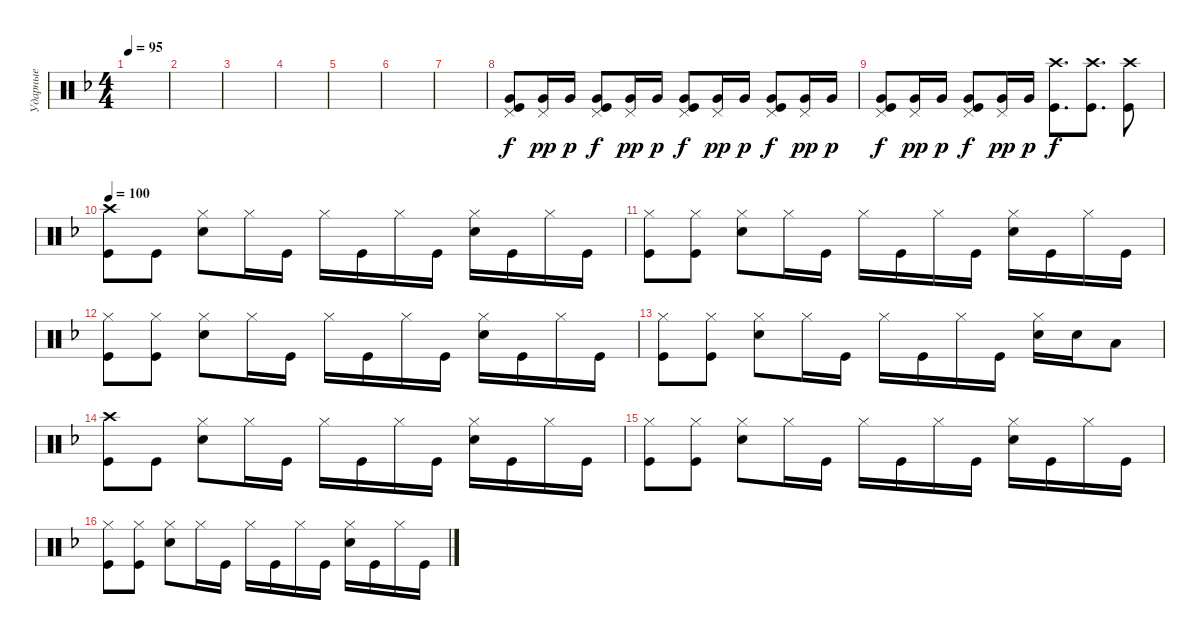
\track ("Ударные" "Ударные") {instrument percussion}
\staff {score}
\articulation defaults
\ts (4 4)
\tempo 95
\clef neutral
\ks dminor
|
|
|
|
|
|
|
("Kick (hit)" "Very Low Tom (hit)" "Pedal Hi-Hat (hit)").8{bd 60} ("Pedal Hi-Hat (hit)" "Very Low Tom (hit)").16{dy pp} "Very Low Tom (hit)".16{dy p} ("Kick (hit)" "Very Low Tom (hit)" "Pedal Hi-Hat (hit)").8{bd 60 dy f} ("Pedal Hi-Hat (hit)" "Very Low Tom (hit)").16{dy pp} "Very Low Tom (hit)".16{dy p} ("Kick (hit)" "Very Low Tom (hit)" "Pedal Hi-Hat (hit)").8{bd 60 dy f} ("Pedal Hi-Hat (hit)" "Very Low Tom (hit)").16{dy pp} "Very Low Tom (hit)".16{dy p} ("Kick (hit)" "Very Low Tom (hit)" "Pedal Hi-Hat (hit)").8{bd 60 dy f} ("Pedal Hi-Hat (hit)" "Very Low Tom (hit)").16{dy pp} "Very Low Tom (hit)".16{dy p} |
("Kick (hit)" "Very Low Tom (hit)" "Pedal Hi-Hat (hit)").8{bd 60 dy f} ("Pedal Hi-Hat (hit)" "Very Low Tom (hit)").16{dy pp} "Very Low Tom (hit)".16{dy p} ("Kick (hit)" "Very Low Tom (hit)" "Pedal Hi-Hat (hit)").8{bd 60 dy f} ("Pedal Hi-Hat (hit)" "Very Low Tom (hit)").16{dy pp} "Very Low Tom (hit)".16{dy p} ("Kick (hit)" "Crash high (hit)").8{d dy f} ("Kick (hit)" "Crash high (hit)").8{d} ("Kick (hit)" "Crash high (hit)").8 |
\tempo 100
("Kick (hit)" "Crash high (hit)").8 "Kick (hit)".8 ("Snare (hit) 2" "Hi-Hat (closed)").8 "Hi-Hat (closed)".16 "Kick (hit)".16 "Hi-Hat (closed)".16 "Kick (hit)".16 "Hi-Hat (closed)".16 "Kick (hit)".16 ("Snare (hit) 2" "Hi-Hat (closed)").16 "Kick (hit)".16 "Hi-Hat (closed)".16 "Kick (hit)".16 |
("Kick (hit)" "Hi-Hat (closed)").8 ("Kick (hit)" "Hi-Hat (closed)").8 ("Snare (hit) 2" "Hi-Hat (closed)").8 "Hi-Hat (closed)".16 "Kick (hit)".16 "Hi-Hat (closed)".16 "Kick (hit)".16 "Hi-Hat (closed)".16 "Kick (hit)".16 ("Snare (hit) 2" "Hi-Hat (closed)").16 "Kick (hit)".16 "Hi-Hat (closed)".16 "Kick (hit)".16 |
("Kick (hit)" "Hi-Hat (closed)").8 ("Kick (hit)" "Hi-Hat (closed)").8 ("Snare (hit) 2" "Hi-Hat (closed)").8 "Hi-Hat (closed)".16 "Kick (hit)".16 "Hi-Hat (closed)".16 "Kick (hit)".16 "Hi-Hat (closed)".16 "Kick (hit)".16 ("Snare (hit) 2" "Hi-Hat (closed)").16 "Kick (hit)".16 "Hi-Hat (closed)".16 "Kick (hit)".16 |
("Kick (hit)" "Hi-Hat (closed)").8 ("Kick (hit)" "Hi-Hat (closed)").8 ("Snare (hit) 2" "Hi-Hat (closed)").8 "Hi-Hat (closed)".16 "Kick (hit)".16 "Hi-Hat (closed)".16 "Kick (hit)".16 "Hi-Hat (closed)".16 "Kick (hit)".16 ("Snare (hit) 2" "Hi-Hat (closed)").16 "Snare (hit) 2".16 "Low Tom (hit)".8 |
("Kick (hit)" "Crash high (hit)").8 "Kick (hit)".8 ("Snare (hit) 2" "Hi-Hat (closed)").8 "Hi-Hat (closed)".16 "Kick (hit)".16 "Hi-Hat (closed)".16 "Kick (hit)".16 "Hi-Hat (closed)".16 "Kick (hit)".16 ("Snare (hit) 2" "Hi-Hat (closed)").16 "Kick (hit)".16 "Hi-Hat (closed)".16 "Kick (hit)".16 |
("Kick (hit)" "Hi-Hat (closed)").8 ("Kick (hit)" "Hi-Hat (closed)").8 ("Snare (hit) 2" "Hi-Hat (closed)").8 "Hi-Hat (closed)".16 "Kick (hit)".16 "Hi-Hat (closed)".16 "Kick (hit)".16 "Hi-Hat (closed)".16 "Kick (hit)".16 ("Snare (hit) 2" "Hi-Hat (closed)").16 "Kick (hit)".16 "Hi-Hat (closed)".16 "Kick (hit)".16 |
("Kick (hit)" "Hi-Hat (closed)").8 ("Kick (hit)" "Hi-Hat (closed)").8 ("Snare (hit) 2" "Hi-Hat (closed)").8 "Hi-Hat (closed)".16 "Kick (hit)".16 "Hi-Hat (closed)".16 "Kick (hit)".16 "Hi-Hat (closed)".16 "Kick (hit)".16 ("Snare (hit) 2" "Hi-Hat (closed)").16 "Kick (hit)".16 "Hi-Hat (closed)".16 "Kick (hit)".16
